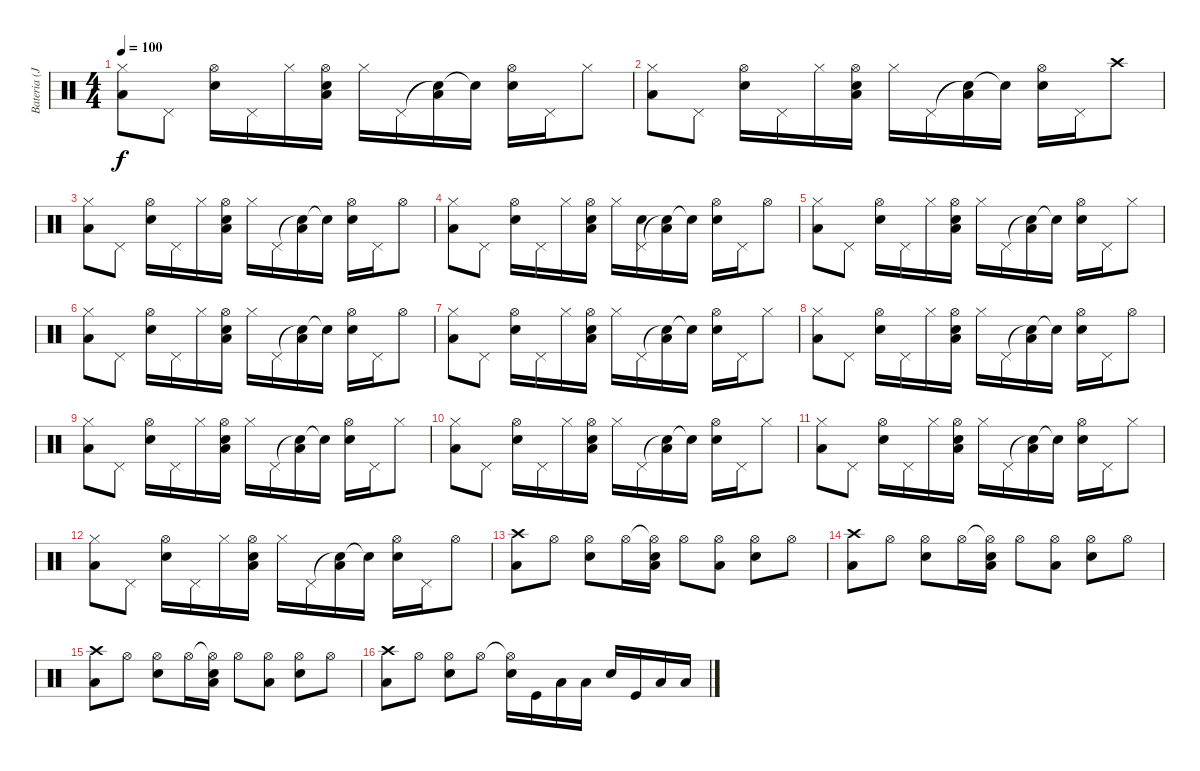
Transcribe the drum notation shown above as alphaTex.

\track ("Bateria (John)" "Bateria (J") {instrument percussion}
\staff {score}
\articulation defaults
\ts (4 4)
\tempo 100
\clef neutral
\ks c
("Hi-Hat (closed)" "Low Tom (hit)").8{dy f} "Pedal Hi-Hat (hit)".8 ("Hi-Hat (open)" "Electric Snare (hit)").16 "Pedal Hi-Hat (hit)".16 "Hi-Hat (closed)".16 ("Hi-Hat (open)" "Electric Snare (hit)" "Low Tom (hit)").16 "Hi-Hat (closed)".16 "Pedal Hi-Hat (hit)".16 ("Snare (hit)"{t} "Low Tom (hit)").16 "Snare (hit)"{t}.16 ("Hi-Hat (open)" "Electric Snare (hit)").16 "Pedal Hi-Hat (hit)".16 "Hi-Hat (closed)".8 |
("Hi-Hat (closed)" "Low Tom (hit)").8 "Pedal Hi-Hat (hit)".8 ("Hi-Hat (open)" "Electric Snare (hit)").16 "Pedal Hi-Hat (hit)".16 "Hi-Hat (closed)".16 ("Hi-Hat (open)" "Electric Snare (hit)" "Low Tom (hit)").16 "Hi-Hat (closed)".16 "Pedal Hi-Hat (hit)".16 ("Snare (hit)"{t} "Low Tom (hit)").16 "Snare (hit)"{t}.16 ("Hi-Hat (open)" "Electric Snare (hit)").16 "Pedal Hi-Hat (hit)".16 "Crash high (hit)".8 |
("Hi-Hat (closed)" "Low Tom (hit)").8 "Pedal Hi-Hat (hit)".8 ("Hi-Hat (open)" "Electric Snare (hit)").16 "Pedal Hi-Hat (hit)".16 "Hi-Hat (closed)".16 ("Hi-Hat (open)" "Electric Snare (hit)" "Low Tom (hit)").16 "Hi-Hat (closed)".16 "Pedal Hi-Hat (hit)".16 ("Snare (hit)"{t} "Low Tom (hit)").16 "Snare (hit)"{t}.16 ("Hi-Hat (open)" "Electric Snare (hit)").16 "Pedal Hi-Hat (hit)".16 "Hi-Hat (open)".8 |
("Hi-Hat (closed)" "Low Tom (hit)").8 "Pedal Hi-Hat (hit)".8 ("Hi-Hat (open)" "Electric Snare (hit)").16 "Pedal Hi-Hat (hit)".16 "Hi-Hat (closed)".16 ("Hi-Hat (open)" "Electric Snare (hit)" "Low Tom (hit)").16 "Hi-Hat (closed)".16 ("Pedal Hi-Hat (hit)" "Electric Snare (hit)").16 ("Snare (hit)"{t} "Low Tom (hit)").16 "Snare (hit)"{t}.16 ("Hi-Hat (open)" "Electric Snare (hit)").16 "Pedal Hi-Hat (hit)".16 "Hi-Hat (open)".8 |
("Hi-Hat (closed)" "Low Tom (hit)").8 "Pedal Hi-Hat (hit)".8 ("Hi-Hat (open)" "Electric Snare (hit)").16 "Pedal Hi-Hat (hit)".16 "Hi-Hat (closed)".16 ("Hi-Hat (open)" "Electric Snare (hit)" "Low Tom (hit)").16 "Hi-Hat (closed)".16 "Pedal Hi-Hat (hit)".16 ("Snare (hit)"{t} "Low Tom (hit)").16 "Snare (hit)"{t}.16 ("Hi-Hat (open)" "Electric Snare (hit)").16 "Pedal Hi-Hat (hit)".16 "Hi-Hat (closed)".8 |
("Hi-Hat (closed)" "Low Tom (hit)").8 "Pedal Hi-Hat (hit)".8 ("Hi-Hat (open)" "Electric Snare (hit)").16 "Pedal Hi-Hat (hit)".16 "Hi-Hat (closed)".16 ("Hi-Hat (open)" "Electric Snare (hit)" "Low Tom (hit)").16 "Hi-Hat (closed)".16 "Pedal Hi-Hat (hit)".16 ("Snare (hit)"{t} "Low Tom (hit)").16 "Snare (hit)"{t}.16 ("Hi-Hat (open)" "Electric Snare (hit)").16 "Pedal Hi-Hat (hit)".16 "Hi-Hat (open)".8 |
("Hi-Hat (closed)" "Low Tom (hit)").8 "Pedal Hi-Hat (hit)".8 ("Hi-Hat (open)" "Electric Snare (hit)").16 "Pedal Hi-Hat (hit)".16 "Hi-Hat (closed)".16 ("Hi-Hat (open)" "Electric Snare (hit)" "Low Tom (hit)").16 "Hi-Hat (closed)".16 "Pedal Hi-Hat (hit)".16 ("Snare (hit)"{t} "Low Tom (hit)").16 "Snare (hit)"{t}.16 ("Hi-Hat (open)" "Electric Snare (hit)").16 "Pedal Hi-Hat (hit)".16 "Hi-Hat (closed)".8 |
("Hi-Hat (closed)" "Low Tom (hit)").8 "Pedal Hi-Hat (hit)".8 ("Hi-Hat (open)" "Electric Snare (hit)").16 "Pedal Hi-Hat (hit)".16 "Hi-Hat (closed)".16 ("Hi-Hat (open)" "Electric Snare (hit)" "Low Tom (hit)").16 "Hi-Hat (closed)".16 "Pedal Hi-Hat (hit)".16 ("Snare (hit)"{t} "Low Tom (hit)").16 "Snare (hit)"{t}.16 ("Hi-Hat (open)" "Electric Snare (hit)").16 "Pedal Hi-Hat (hit)".16 "Hi-Hat (open)".8 |
("Hi-Hat (closed)" "Low Tom (hit)").8 "Pedal Hi-Hat (hit)".8 ("Hi-Hat (open)" "Electric Snare (hit)").16 "Pedal Hi-Hat (hit)".16 "Hi-Hat (closed)".16 ("Hi-Hat (open)" "Electric Snare (hit)" "Low Tom (hit)").16 "Hi-Hat (closed)".16 "Pedal Hi-Hat (hit)".16 ("Snare (hit)"{t} "Low Tom (hit)").16 "Snare (hit)"{t}.16 ("Hi-Hat (open)" "Electric Snare (hit)").16 "Pedal Hi-Hat (hit)".16 "Hi-Hat (closed)".8 |
("Hi-Hat (closed)" "Low Tom (hit)").8 "Pedal Hi-Hat (hit)".8 ("Hi-Hat (open)" "Electric Snare (hit)").16 "Pedal Hi-Hat (hit)".16 "Hi-Hat (closed)".16 ("Hi-Hat (open)" "Electric Snare (hit)" "Low Tom (hit)").16 "Hi-Hat (closed)".16 "Pedal Hi-Hat (hit)".16 ("Snare (hit)"{t} "Low Tom (hit)").16 "Snare (hit)"{t}.16 ("Hi-Hat (open)" "Electric Snare (hit)").16 "Pedal Hi-Hat (hit)".16 "Hi-Hat (closed)".8 |
("Hi-Hat (closed)" "Low Tom (hit)").8 "Pedal Hi-Hat (hit)".8 ("Hi-Hat (open)" "Electric Snare (hit)").16 "Pedal Hi-Hat (hit)".16 "Hi-Hat (closed)".16 ("Hi-Hat (open)" "Electric Snare (hit)" "Low Tom (hit)").16 "Hi-Hat (closed)".16 "Pedal Hi-Hat (hit)".16 ("Snare (hit)"{t} "Low Tom (hit)").16 "Snare (hit)"{t}.16 ("Hi-Hat (open)" "Electric Snare (hit)").16 "Pedal Hi-Hat (hit)".16 "Hi-Hat (closed)".8 |
("Hi-Hat (closed)" "Low Tom (hit)").8 "Pedal Hi-Hat (hit)".8 ("Hi-Hat (open)" "Electric Snare (hit)").16 "Pedal Hi-Hat (hit)".16 "Hi-Hat (closed)".16 ("Hi-Hat (open)" "Electric Snare (hit)" "Low Tom (hit)").16 "Hi-Hat (closed)".16 "Pedal Hi-Hat (hit)".16 ("Snare (hit)"{t} "Low Tom (hit)").16 "Snare (hit)"{t}.16 ("Hi-Hat (open)" "Electric Snare (hit)").16 "Pedal Hi-Hat (hit)".16 "Hi-Hat (open)".8 |
("Crash high (hit)" "Low Tom (hit)").8 "Hi-Hat (open)".8 ("Hi-Hat (open)" "Electric Snare (hit)").8 "Hi-Hat (open)".16 ("Hi-Hat (open)"{t} "Electric Snare (hit)" "Low Tom (hit)").16 "Hi-Hat (open)".8 ("Hi-Hat (open)" "Low Tom (hit)").8 ("Hi-Hat (open)" "Electric Snare (hit)").8 "Hi-Hat (open)".8 |
("Crash high (hit)" "Low Tom (hit)").8 "Hi-Hat (open)".8 ("Hi-Hat (open)" "Electric Snare (hit)").8 "Hi-Hat (open)".16 ("Hi-Hat (open)"{t} "Electric Snare (hit)" "Low Tom (hit)").16 "Hi-Hat (open)".8 ("Hi-Hat (open)" "Low Tom (hit)").8 ("Hi-Hat (open)" "Electric Snare (hit)").8 "Hi-Hat (open)".8 |
("Crash high (hit)" "Low Tom (hit)").8 "Hi-Hat (open)".8 ("Hi-Hat (open)" "Electric Snare (hit)").8 "Hi-Hat (open)".16 ("Hi-Hat (open)"{t} "Electric Snare (hit)" "Low Tom (hit)").16 "Hi-Hat (open)".8 ("Hi-Hat (open)" "Low Tom (hit)").8 ("Hi-Hat (open)" "Electric Snare (hit)").8 "Hi-Hat (open)".8 |
("Crash high (hit)" "Low Tom (hit)").8 "Hi-Hat (open)".8 ("Hi-Hat (open)" "Electric Snare (hit)").8 "Hi-Hat (open)".8 ("Hi-Hat (open)"{t} "Electric Snare (hit)").16 "Kick (hit)".16 "Low Tom (hit)".16 "Low Tom (hit)".16 "Electric Snare (hit)".16 "Kick (hit)".16 "Low Tom (hit)".16 "Low Tom (hit)".16
